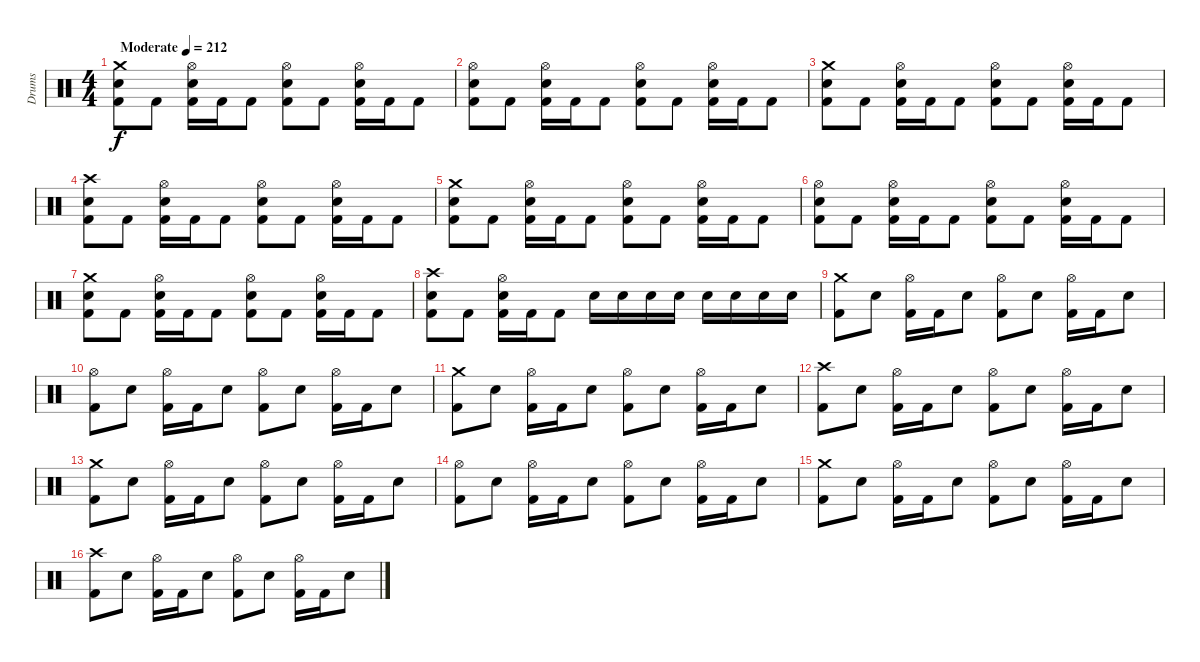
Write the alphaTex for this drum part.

\track ("Drums" "Drums") {instrument percussion}
\staff {score}
\articulation defaults
\ts (4 4)
\tempo (212 "Moderate")
\clef neutral
\ks c
("Crash medium (hit)" "Electric Snare (hit)" "Kick (hit) 2").8{dy f} "Kick (hit) 2".8 ("Hi-Hat (open)" "Electric Snare (hit)" "Kick (hit) 2").16 "Kick (hit) 2".16 "Kick (hit) 2".8 ("Hi-Hat (open)" "Electric Snare (hit)" "Kick (hit) 2").8 "Kick (hit) 2".8 ("Hi-Hat (open)" "Electric Snare (hit)" "Kick (hit) 2").16 "Kick (hit) 2".16 "Kick (hit) 2".8 |
("Hi-Hat (open)" "Electric Snare (hit)" "Kick (hit) 2").8 "Kick (hit) 2".8 ("Hi-Hat (open)" "Electric Snare (hit)" "Kick (hit) 2").16 "Kick (hit) 2".16 "Kick (hit) 2".8 ("Hi-Hat (open)" "Electric Snare (hit)" "Kick (hit) 2").8 "Kick (hit) 2".8 ("Hi-Hat (open)" "Electric Snare (hit)" "Kick (hit) 2").16 "Kick (hit) 2".16 "Kick (hit) 2".8 |
("Crash medium (hit)" "Electric Snare (hit)" "Kick (hit) 2").8 "Kick (hit) 2".8 ("Hi-Hat (open)" "Electric Snare (hit)" "Kick (hit) 2").16 "Kick (hit) 2".16 "Kick (hit) 2".8 ("Hi-Hat (open)" "Electric Snare (hit)" "Kick (hit) 2").8 "Kick (hit) 2".8 ("Hi-Hat (open)" "Electric Snare (hit)" "Kick (hit) 2").16 "Kick (hit) 2".16 "Kick (hit) 2".8 |
("Crash high (hit)" "Electric Snare (hit)" "Kick (hit) 2").8 "Kick (hit) 2".8 ("Hi-Hat (open)" "Electric Snare (hit)" "Kick (hit) 2").16 "Kick (hit) 2".16 "Kick (hit) 2".8 ("Hi-Hat (open)" "Electric Snare (hit)" "Kick (hit) 2").8 "Kick (hit) 2".8 ("Hi-Hat (open)" "Electric Snare (hit)" "Kick (hit) 2").16 "Kick (hit) 2".16 "Kick (hit) 2".8 |
("Crash medium (hit)" "Electric Snare (hit)" "Kick (hit) 2").8 "Kick (hit) 2".8 ("Hi-Hat (open)" "Electric Snare (hit)" "Kick (hit) 2").16 "Kick (hit) 2".16 "Kick (hit) 2".8 ("Hi-Hat (open)" "Electric Snare (hit)" "Kick (hit) 2").8 "Kick (hit) 2".8 ("Hi-Hat (open)" "Electric Snare (hit)" "Kick (hit) 2").16 "Kick (hit) 2".16 "Kick (hit) 2".8 |
("Hi-Hat (open)" "Electric Snare (hit)" "Kick (hit) 2").8 "Kick (hit) 2".8 ("Hi-Hat (open)" "Electric Snare (hit)" "Kick (hit) 2").16 "Kick (hit) 2".16 "Kick (hit) 2".8 ("Hi-Hat (open)" "Electric Snare (hit)" "Kick (hit) 2").8 "Kick (hit) 2".8 ("Hi-Hat (open)" "Electric Snare (hit)" "Kick (hit) 2").16 "Kick (hit) 2".16 "Kick (hit) 2".8 |
("Crash medium (hit)" "Electric Snare (hit)" "Kick (hit) 2").8 "Kick (hit) 2".8 ("Hi-Hat (open)" "Electric Snare (hit)" "Kick (hit) 2").16 "Kick (hit) 2".16 "Kick (hit) 2".8 ("Hi-Hat (open)" "Electric Snare (hit)" "Kick (hit) 2").8 "Kick (hit) 2".8 ("Hi-Hat (open)" "Electric Snare (hit)" "Kick (hit) 2").16 "Kick (hit) 2".16 "Kick (hit) 2".8 |
("Crash high (hit)" "Electric Snare (hit)" "Kick (hit) 2").8 "Kick (hit) 2".8 ("Hi-Hat (open)" "Electric Snare (hit)" "Kick (hit) 2").16 "Kick (hit) 2".16 "Kick (hit) 2".8 "Electric Snare (hit)".16 "Electric Snare (hit)".16 "Electric Snare (hit)".16 "Electric Snare (hit)".16 "Electric Snare (hit)".16 "Electric Snare (hit)".16 "Electric Snare (hit)".16 "Electric Snare (hit)".16 |
("Crash medium (hit)" "Kick (hit) 2").8 "Electric Snare (hit)".8 ("Hi-Hat (open)" "Kick (hit) 2").16 "Kick (hit) 2".16 "Electric Snare (hit)".8 ("Hi-Hat (open)" "Kick (hit) 2").8 "Electric Snare (hit)".8 ("Hi-Hat (open)" "Kick (hit) 2").16 "Kick (hit) 2".16 "Electric Snare (hit)".8 |
("Hi-Hat (open)" "Kick (hit) 2").8 "Electric Snare (hit)".8 ("Hi-Hat (open)" "Kick (hit) 2").16 "Kick (hit) 2".16 "Electric Snare (hit)".8 ("Hi-Hat (open)" "Kick (hit) 2").8 "Electric Snare (hit)".8 ("Hi-Hat (open)" "Kick (hit) 2").16 "Kick (hit) 2".16 "Electric Snare (hit)".8 |
("Crash medium (hit)" "Kick (hit) 2").8 "Electric Snare (hit)".8 ("Hi-Hat (open)" "Kick (hit) 2").16 "Kick (hit) 2".16 "Electric Snare (hit)".8 ("Hi-Hat (open)" "Kick (hit) 2").8 "Electric Snare (hit)".8 ("Hi-Hat (open)" "Kick (hit) 2").16 "Kick (hit) 2".16 "Electric Snare (hit)".8 |
("Crash high (hit)" "Kick (hit) 2").8 "Electric Snare (hit)".8 ("Hi-Hat (open)" "Kick (hit) 2").16 "Kick (hit) 2".16 "Electric Snare (hit)".8 ("Hi-Hat (open)" "Kick (hit) 2").8 "Electric Snare (hit)".8 ("Hi-Hat (open)" "Kick (hit) 2").16 "Kick (hit) 2".16 "Electric Snare (hit)".8 |
("Crash medium (hit)" "Kick (hit) 2").8 "Electric Snare (hit)".8 ("Hi-Hat (open)" "Kick (hit) 2").16 "Kick (hit) 2".16 "Electric Snare (hit)".8 ("Hi-Hat (open)" "Kick (hit) 2").8 "Electric Snare (hit)".8 ("Hi-Hat (open)" "Kick (hit) 2").16 "Kick (hit) 2".16 "Electric Snare (hit)".8 |
("Hi-Hat (open)" "Kick (hit) 2").8 "Electric Snare (hit)".8 ("Hi-Hat (open)" "Kick (hit) 2").16 "Kick (hit) 2".16 "Electric Snare (hit)".8 ("Hi-Hat (open)" "Kick (hit) 2").8 "Electric Snare (hit)".8 ("Hi-Hat (open)" "Kick (hit) 2").16 "Kick (hit) 2".16 "Electric Snare (hit)".8 |
("Crash medium (hit)" "Kick (hit) 2").8 "Electric Snare (hit)".8 ("Hi-Hat (open)" "Kick (hit) 2").16 "Kick (hit) 2".16 "Electric Snare (hit)".8 ("Hi-Hat (open)" "Kick (hit) 2").8 "Electric Snare (hit)".8 ("Hi-Hat (open)" "Kick (hit) 2").16 "Kick (hit) 2".16 "Electric Snare (hit)".8 |
("Crash high (hit)" "Kick (hit) 2").8 "Electric Snare (hit)".8 ("Hi-Hat (open)" "Kick (hit) 2").16 "Kick (hit) 2".16 "Electric Snare (hit)".8 ("Hi-Hat (open)" "Kick (hit) 2").8 "Electric Snare (hit)".8 ("Hi-Hat (open)" "Kick (hit) 2").16 "Kick (hit) 2".16 "Electric Snare (hit)".8
